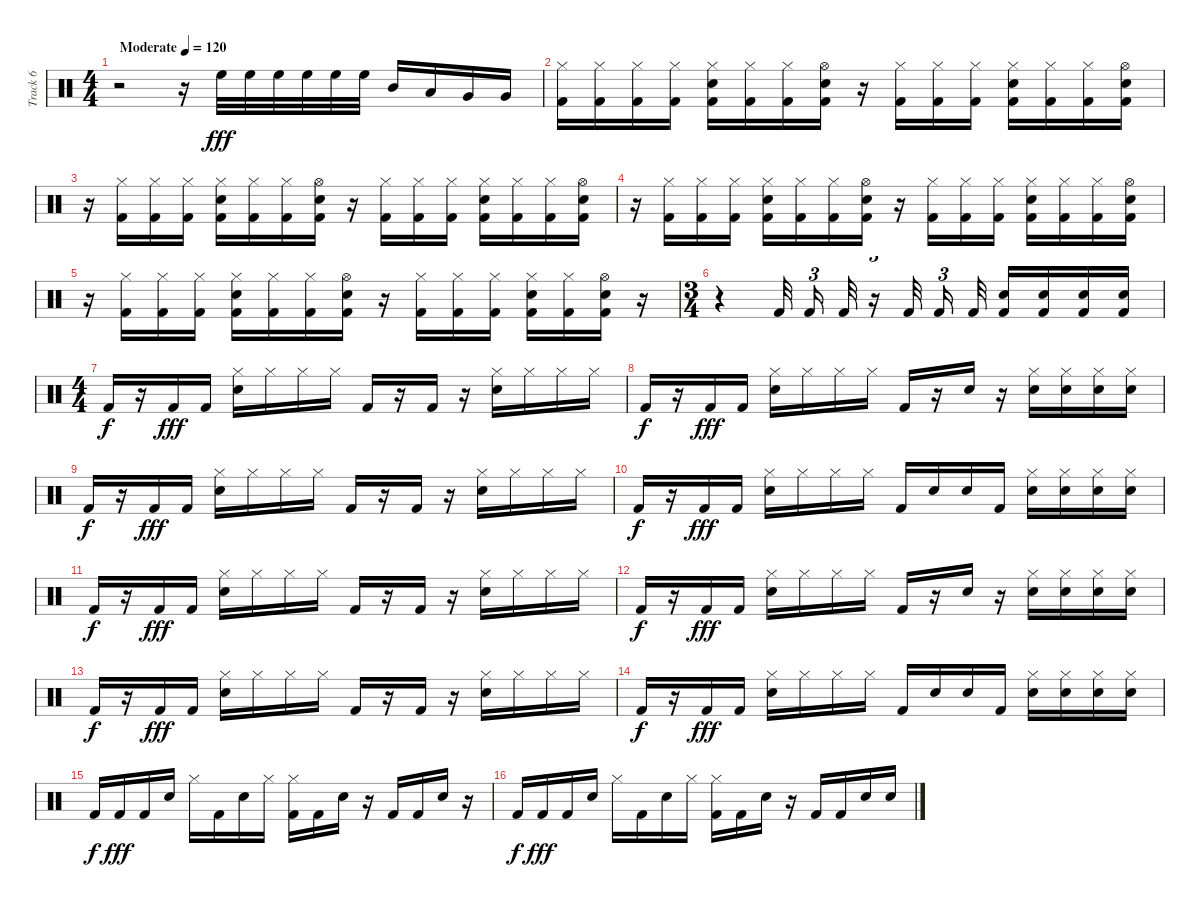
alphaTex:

\track ("Track 6" "Track 6") {instrument percussion}
\staff {score}
\articulation defaults
\ts (4 4)
\tempo (120 "Moderate")
\clef neutral
\ks c
r.2{dy fff} r.16 "High Floor Tom (hit)".32 "High Floor Tom (hit)".32 "High Floor Tom (hit)".32 "High Floor Tom (hit)".32 "High Floor Tom (hit)".32 "High Floor Tom (hit)".32 "Mid Tom (hit)".16 "Low Tom (hit)".16 "Very Low Tom (hit)".16 "Very Low Tom (hit)".16 |
("Kick (hit) 2" "Hi-Hat (closed)").16 ("Kick (hit) 2" "Hi-Hat (closed)").16 ("Kick (hit) 2" "Hi-Hat (closed)").16 ("Kick (hit) 2" "Hi-Hat (closed)").16 ("Snare (hit) 2" "Kick (hit) 2" "Hi-Hat (closed)").16 ("Kick (hit) 2" "Hi-Hat (closed)").16 ("Kick (hit) 2" "Hi-Hat (closed)").16 ("Kick (hit) 2" "Snare (hit) 2" "Hi-Hat (open)").16 r.16 ("Kick (hit) 2" "Hi-Hat (closed)").16 ("Kick (hit) 2" "Hi-Hat (closed)").16 ("Kick (hit) 2" "Hi-Hat (closed)").16 ("Snare (hit) 2" "Kick (hit) 2" "Hi-Hat (closed)").16 ("Kick (hit) 2" "Hi-Hat (closed)").16 ("Kick (hit) 2" "Hi-Hat (closed)").16 ("Kick (hit) 2" "Snare (hit) 2" "Hi-Hat (open)").16 |
r.16 ("Kick (hit) 2" "Hi-Hat (closed)").16 ("Kick (hit) 2" "Hi-Hat (closed)").16 ("Kick (hit) 2" "Hi-Hat (closed)").16 ("Snare (hit) 2" "Kick (hit) 2" "Hi-Hat (closed)").16 ("Kick (hit) 2" "Hi-Hat (closed)").16 ("Kick (hit) 2" "Hi-Hat (closed)").16 ("Kick (hit) 2" "Snare (hit) 2" "Hi-Hat (open)").16 r.16 ("Kick (hit) 2" "Hi-Hat (closed)").16 ("Kick (hit) 2" "Hi-Hat (closed)").16 ("Kick (hit) 2" "Hi-Hat (closed)").16 ("Snare (hit) 2" "Kick (hit) 2" "Hi-Hat (closed)").16 ("Kick (hit) 2" "Hi-Hat (closed)").16 ("Kick (hit) 2" "Hi-Hat (closed)").16 ("Kick (hit) 2" "Snare (hit) 2" "Hi-Hat (open)").16 |
r.16 ("Kick (hit) 2" "Hi-Hat (closed)").16 ("Kick (hit) 2" "Hi-Hat (closed)").16 ("Kick (hit) 2" "Hi-Hat (closed)").16 ("Snare (hit) 2" "Kick (hit) 2" "Hi-Hat (closed)").16 ("Kick (hit) 2" "Hi-Hat (closed)").16 ("Kick (hit) 2" "Hi-Hat (closed)").16 ("Kick (hit) 2" "Snare (hit) 2" "Hi-Hat (open)").16 r.16 ("Kick (hit) 2" "Hi-Hat (closed)").16 ("Kick (hit) 2" "Hi-Hat (closed)").16 ("Kick (hit) 2" "Hi-Hat (closed)").16 ("Snare (hit) 2" "Kick (hit) 2" "Hi-Hat (closed)").16 ("Kick (hit) 2" "Hi-Hat (closed)").16 ("Kick (hit) 2" "Hi-Hat (closed)").16 ("Kick (hit) 2" "Snare (hit) 2" "Hi-Hat (open)").16 |
r.16 ("Kick (hit) 2" "Hi-Hat (closed)").16 ("Kick (hit) 2" "Hi-Hat (closed)").16 ("Kick (hit) 2" "Hi-Hat (closed)").16 ("Snare (hit) 2" "Kick (hit) 2" "Hi-Hat (closed)").16 ("Kick (hit) 2" "Hi-Hat (closed)").16 ("Kick (hit) 2" "Hi-Hat (closed)").16 ("Kick (hit) 2" "Snare (hit) 2" "Hi-Hat (open)").16 r.16 ("Kick (hit) 2" "Hi-Hat (closed)").16 ("Kick (hit) 2" "Hi-Hat (closed)").16 ("Kick (hit) 2" "Hi-Hat (closed)").16 ("Snare (hit) 2" "Kick (hit) 2" "Hi-Hat (closed)").16 ("Kick (hit) 2" "Hi-Hat (closed)").16 ("Kick (hit) 2" "Hi-Hat (open)" "Snare (hit) 2").16 r.16 |
\ts (3 4)
r.4 "Kick (hit) 2".32{beam splitsecondary} "Kick (hit) 2".16{tu (3 2)} "Kick (hit) 2".32 r.16{tu (3 2)} "Kick (hit) 2".32{beam splitsecondary} "Kick (hit) 2".16{tu (3 2)} "Kick (hit) 2".32 ("Snare (hit) 2" "Kick (hit) 2").16 ("Snare (hit) 2" "Kick (hit) 2").16 ("Snare (hit) 2" "Kick (hit) 2").16 ("Snare (hit) 2" "Kick (hit) 2").16 |
\ts (4 4)
"Kick (hit) 2".16{dy f} r.16 "Kick (hit) 2".16{dy fff} "Kick (hit) 2".16 ("Snare (hit) 2" "Hi-Hat (closed)").16 "Hi-Hat (closed)".16 "Hi-Hat (closed)".16 "Hi-Hat (closed)".16 "Kick (hit) 2".16 r.16 "Kick (hit) 2".16 r.16 ("Snare (hit) 2" "Hi-Hat (closed)").16 "Hi-Hat (closed)".16 "Hi-Hat (closed)".16 "Hi-Hat (closed)".16 |
"Kick (hit) 2".16{dy f} r.16 "Kick (hit) 2".16{dy fff} "Kick (hit) 2".16 ("Snare (hit) 2" "Hi-Hat (closed)").16 "Hi-Hat (closed)".16 "Hi-Hat (closed)".16 "Hi-Hat (closed)".16 "Kick (hit) 2".16 r.16 "Snare (hit) 2".16 r.16 ("Snare (hit) 2" "Hi-Hat (closed)").16 ("Hi-Hat (closed)" "Snare (hit) 2").16 ("Hi-Hat (closed)" "Snare (hit) 2").16 ("Hi-Hat (closed)" "Snare (hit) 2").16 |
"Kick (hit) 2".16{dy f} r.16 "Kick (hit) 2".16{dy fff} "Kick (hit) 2".16 ("Snare (hit) 2" "Hi-Hat (closed)").16 "Hi-Hat (closed)".16 "Hi-Hat (closed)".16 "Hi-Hat (closed)".16 "Kick (hit) 2".16 r.16 "Kick (hit) 2".16 r.16 ("Snare (hit) 2" "Hi-Hat (closed)").16 "Hi-Hat (closed)".16 "Hi-Hat (closed)".16 "Hi-Hat (closed)".16 |
"Kick (hit) 2".16{dy f} r.16 "Kick (hit) 2".16{dy fff} "Kick (hit) 2".16 ("Snare (hit) 2" "Hi-Hat (closed)").16 "Hi-Hat (closed)".16 "Hi-Hat (closed)".16 "Hi-Hat (closed)".16 "Kick (hit) 2".16 "Snare (hit) 2".16 "Snare (hit) 2".16 "Kick (hit) 2".16 ("Snare (hit) 2" "Hi-Hat (closed)").16 ("Hi-Hat (closed)" "Snare (hit) 2").16 ("Hi-Hat (closed)" "Snare (hit) 2").16 ("Hi-Hat (closed)" "Snare (hit) 2").16 |
"Kick (hit) 2".16{dy f} r.16 "Kick (hit) 2".16{dy fff} "Kick (hit) 2".16 ("Snare (hit) 2" "Hi-Hat (closed)").16 "Hi-Hat (closed)".16 "Hi-Hat (closed)".16 "Hi-Hat (closed)".16 "Kick (hit) 2".16 r.16 "Kick (hit) 2".16 r.16 ("Snare (hit) 2" "Hi-Hat (closed)").16 "Hi-Hat (closed)".16 "Hi-Hat (closed)".16 "Hi-Hat (closed)".16 |
"Kick (hit) 2".16{dy f} r.16 "Kick (hit) 2".16{dy fff} "Kick (hit) 2".16 ("Snare (hit) 2" "Hi-Hat (closed)").16 "Hi-Hat (closed)".16 "Hi-Hat (closed)".16 "Hi-Hat (closed)".16 "Kick (hit) 2".16 r.16 "Snare (hit) 2".16 r.16 ("Snare (hit) 2" "Hi-Hat (closed)").16 ("Hi-Hat (closed)" "Snare (hit) 2").16 ("Hi-Hat (closed)" "Snare (hit) 2").16 ("Hi-Hat (closed)" "Snare (hit) 2").16 |
"Kick (hit) 2".16{dy f} r.16 "Kick (hit) 2".16{dy fff} "Kick (hit) 2".16 ("Snare (hit) 2" "Hi-Hat (closed)").16 "Hi-Hat (closed)".16 "Hi-Hat (closed)".16 "Hi-Hat (closed)".16 "Kick (hit) 2".16 r.16 "Kick (hit) 2".16 r.16 ("Snare (hit) 2" "Hi-Hat (closed)").16 "Hi-Hat (closed)".16 "Hi-Hat (closed)".16 "Hi-Hat (closed)".16 |
"Kick (hit) 2".16{dy f} r.16 "Kick (hit) 2".16{dy fff} "Kick (hit) 2".16 ("Snare (hit) 2" "Hi-Hat (closed)").16 "Hi-Hat (closed)".16 "Hi-Hat (closed)".16 "Hi-Hat (closed)".16 "Kick (hit) 2".16 "Snare (hit) 2".16 "Snare (hit) 2".16 "Kick (hit) 2".16 ("Snare (hit) 2" "Hi-Hat (closed)").16 ("Hi-Hat (closed)" "Snare (hit) 2").16 ("Hi-Hat (closed)" "Snare (hit) 2").16 ("Hi-Hat (closed)" "Snare (hit) 2").16 |
"Kick (hit) 2".16{dy f} "Kick (hit) 2".16{dy fff} "Kick (hit) 2".16 "Snare (hit) 2".16 "Hi-Hat (closed)".16 "Kick (hit) 2".16 "Snare (hit) 2".16 "Hi-Hat (closed)".16 ("Kick (hit) 2" "Hi-Hat (closed)").16 "Kick (hit) 2".16 "Snare (hit) 2".16 r.16 "Kick (hit) 2".16 "Kick (hit) 2".16 "Snare (hit) 2".16 r.16 |
"Kick (hit) 2".16{dy f} "Kick (hit) 2".16{dy fff} "Kick (hit) 2".16 "Snare (hit) 2".16 "Hi-Hat (closed)".16 "Kick (hit) 2".16 "Snare (hit) 2".16 "Hi-Hat (closed)".16 ("Kick (hit) 2" "Hi-Hat (closed)").16 "Kick (hit) 2".16 "Snare (hit) 2".16 r.16 "Kick (hit) 2".16 "Kick (hit) 2".16 "Snare (hit) 2".16 "Snare (hit) 2".16
